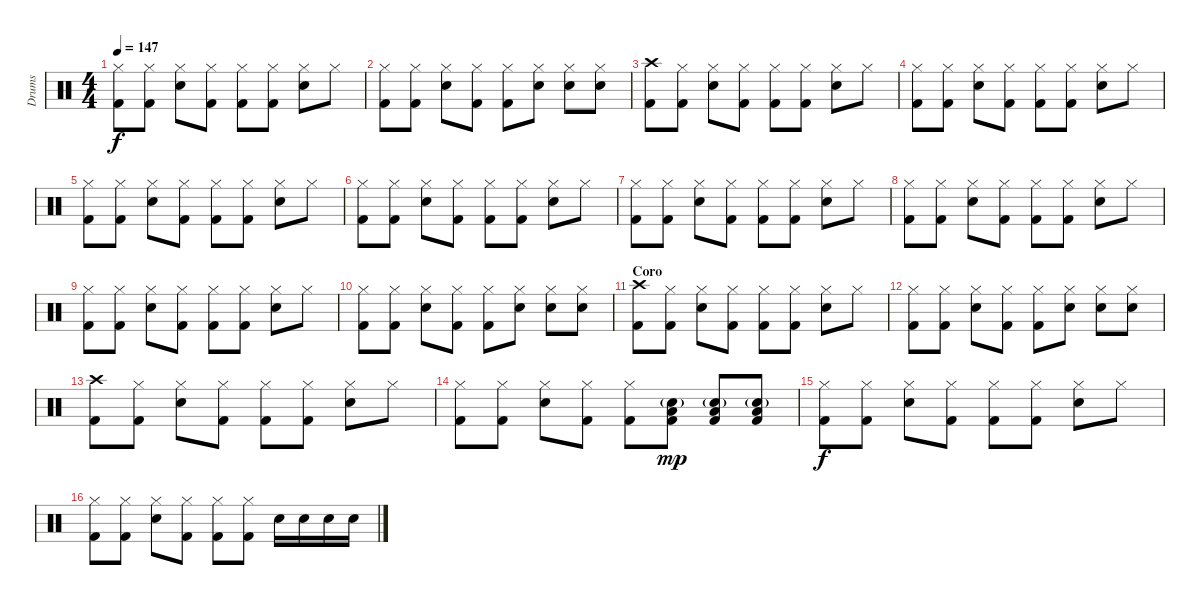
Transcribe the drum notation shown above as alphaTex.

\track ("Drums" "Drums") {instrument percussion}
\staff {score}
\articulation defaults
\ts (4 4)
\tempo 147
\clef neutral
\ks c
("Hi-Hat (closed)" "Kick (hit) 2").8{dy f} ("Hi-Hat (closed)" "Kick (hit) 2").8 ("Hi-Hat (closed)" "Snare (hit) 2").8 ("Hi-Hat (closed)" "Kick (hit) 2").8 ("Hi-Hat (closed)" "Kick (hit) 2").8 ("Hi-Hat (closed)" "Kick (hit) 2").8 ("Hi-Hat (closed)" "Snare (hit) 2").8 "Hi-Hat (closed)".8 |
("Hi-Hat (closed)" "Kick (hit) 2").8 ("Hi-Hat (closed)" "Kick (hit) 2").8 ("Hi-Hat (closed)" "Snare (hit) 2").8 ("Hi-Hat (closed)" "Kick (hit) 2").8 ("Hi-Hat (closed)" "Kick (hit) 2").8 ("Hi-Hat (closed)" "Snare (hit) 2").8 ("Hi-Hat (closed)" "Snare (hit) 2").8 ("Hi-Hat (closed)" "Snare (hit) 2").8 |
("Crash high (hit)" "Kick (hit) 2").8 ("Hi-Hat (closed)" "Kick (hit) 2").8 ("Hi-Hat (closed)" "Snare (hit) 2").8 ("Hi-Hat (closed)" "Kick (hit) 2").8 ("Hi-Hat (closed)" "Kick (hit) 2").8 ("Hi-Hat (closed)" "Kick (hit) 2").8 ("Hi-Hat (closed)" "Snare (hit) 2").8 "Hi-Hat (closed)".8 |
("Hi-Hat (closed)" "Kick (hit) 2").8 ("Hi-Hat (closed)" "Kick (hit) 2").8 ("Hi-Hat (closed)" "Snare (hit) 2").8 ("Hi-Hat (closed)" "Kick (hit) 2").8 ("Hi-Hat (closed)" "Kick (hit) 2").8 ("Hi-Hat (closed)" "Kick (hit) 2").8 ("Hi-Hat (closed)" "Snare (hit) 2").8 "Hi-Hat (closed)".8 |
("Hi-Hat (closed)" "Kick (hit) 2").8 ("Hi-Hat (closed)" "Kick (hit) 2").8 ("Hi-Hat (closed)" "Snare (hit) 2").8 ("Hi-Hat (closed)" "Kick (hit) 2").8 ("Hi-Hat (closed)" "Kick (hit) 2").8 ("Hi-Hat (closed)" "Kick (hit) 2").8 ("Hi-Hat (closed)" "Snare (hit) 2").8 "Hi-Hat (closed)".8 |
("Hi-Hat (closed)" "Kick (hit) 2").8 ("Hi-Hat (closed)" "Kick (hit) 2").8 ("Hi-Hat (closed)" "Snare (hit) 2").8 ("Hi-Hat (closed)" "Kick (hit) 2").8 ("Hi-Hat (closed)" "Kick (hit) 2").8 ("Hi-Hat (closed)" "Kick (hit) 2").8 ("Hi-Hat (closed)" "Snare (hit) 2").8 "Hi-Hat (closed)".8 |
("Hi-Hat (closed)" "Kick (hit) 2").8 ("Hi-Hat (closed)" "Kick (hit) 2").8 ("Hi-Hat (closed)" "Snare (hit) 2").8 ("Hi-Hat (closed)" "Kick (hit) 2").8 ("Hi-Hat (closed)" "Kick (hit) 2").8 ("Hi-Hat (closed)" "Kick (hit) 2").8 ("Hi-Hat (closed)" "Snare (hit) 2").8 "Hi-Hat (closed)".8 |
("Hi-Hat (closed)" "Kick (hit) 2").8 ("Hi-Hat (closed)" "Kick (hit) 2").8 ("Hi-Hat (closed)" "Snare (hit) 2").8 ("Hi-Hat (closed)" "Kick (hit) 2").8 ("Hi-Hat (closed)" "Kick (hit) 2").8 ("Hi-Hat (closed)" "Kick (hit) 2").8 ("Hi-Hat (closed)" "Snare (hit) 2").8 "Hi-Hat (closed)".8 |
("Hi-Hat (closed)" "Kick (hit) 2").8 ("Hi-Hat (closed)" "Kick (hit) 2").8 ("Hi-Hat (closed)" "Snare (hit) 2").8 ("Hi-Hat (closed)" "Kick (hit) 2").8 ("Hi-Hat (closed)" "Kick (hit) 2").8 ("Hi-Hat (closed)" "Kick (hit) 2").8 ("Hi-Hat (closed)" "Snare (hit) 2").8 "Hi-Hat (closed)".8 |
("Hi-Hat (closed)" "Kick (hit) 2").8 ("Hi-Hat (closed)" "Kick (hit) 2").8 ("Hi-Hat (closed)" "Snare (hit) 2").8 ("Hi-Hat (closed)" "Kick (hit) 2").8 ("Hi-Hat (closed)" "Kick (hit) 2").8 ("Hi-Hat (closed)" "Snare (hit) 2").8 ("Hi-Hat (closed)" "Snare (hit) 2").8 ("Hi-Hat (closed)" "Snare (hit) 2").8 |
\section ("" "Coro")
("Crash high (hit)" "Kick (hit) 2").8 ("Hi-Hat (closed)" "Kick (hit) 2").8 ("Hi-Hat (closed)" "Snare (hit) 2").8 ("Hi-Hat (closed)" "Kick (hit) 2").8 ("Hi-Hat (closed)" "Kick (hit) 2").8 ("Hi-Hat (closed)" "Kick (hit) 2").8 ("Hi-Hat (closed)" "Snare (hit) 2").8 "Hi-Hat (closed)".8 |
("Hi-Hat (closed)" "Kick (hit) 2").8 ("Hi-Hat (closed)" "Kick (hit) 2").8 ("Hi-Hat (closed)" "Snare (hit) 2").8 ("Hi-Hat (closed)" "Kick (hit) 2").8 ("Hi-Hat (closed)" "Kick (hit) 2").8 ("Hi-Hat (closed)" "Snare (hit) 2").8 ("Hi-Hat (closed)" "Snare (hit) 2").8 ("Hi-Hat (closed)" "Snare (hit) 2").8 |
("Crash high (hit)" "Kick (hit) 2").8 ("Hi-Hat (closed)" "Kick (hit) 2").8 ("Hi-Hat (closed)" "Snare (hit) 2").8 ("Hi-Hat (closed)" "Kick (hit) 2").8 ("Hi-Hat (closed)" "Kick (hit) 2").8 ("Hi-Hat (closed)" "Kick (hit) 2").8 ("Hi-Hat (closed)" "Snare (hit) 2").8 "Hi-Hat (closed)".8 |
("Hi-Hat (closed)" "Kick (hit) 2").8 ("Hi-Hat (closed)" "Kick (hit) 2").8 ("Hi-Hat (closed)" "Snare (hit) 2").8 ("Hi-Hat (closed)" "Kick (hit) 2").8 ("Hi-Hat (closed)" "Kick (hit) 2").8 ("Snare (hit) 2"{g} "Low Floor Tom (hit)" "Kick (hit) 2").8{dy mp} ("Snare (hit) 2"{g} "Low Floor Tom (hit)" "Kick (hit) 2").8 ("Snare (hit) 2"{g} "Low Floor Tom (hit)" "Kick (hit) 2").8 |
("Hi-Hat (closed)" "Kick (hit) 2").8{dy f} ("Hi-Hat (closed)" "Kick (hit) 2").8 ("Hi-Hat (closed)" "Snare (hit) 2").8 ("Hi-Hat (closed)" "Kick (hit) 2").8 ("Hi-Hat (closed)" "Kick (hit) 2").8 ("Hi-Hat (closed)" "Kick (hit) 2").8 ("Hi-Hat (closed)" "Snare (hit) 2").8 "Hi-Hat (closed)".8 |
("Hi-Hat (closed)" "Kick (hit) 2").8 ("Hi-Hat (closed)" "Kick (hit) 2").8 ("Hi-Hat (closed)" "Snare (hit) 2").8 ("Hi-Hat (closed)" "Kick (hit) 2").8 ("Hi-Hat (closed)" "Kick (hit) 2").8 ("Hi-Hat (closed)" "Kick (hit) 2").8 "Snare (hit) 2".16 "Snare (hit) 2".16 "Snare (hit) 2".16 "Snare (hit) 2".16
